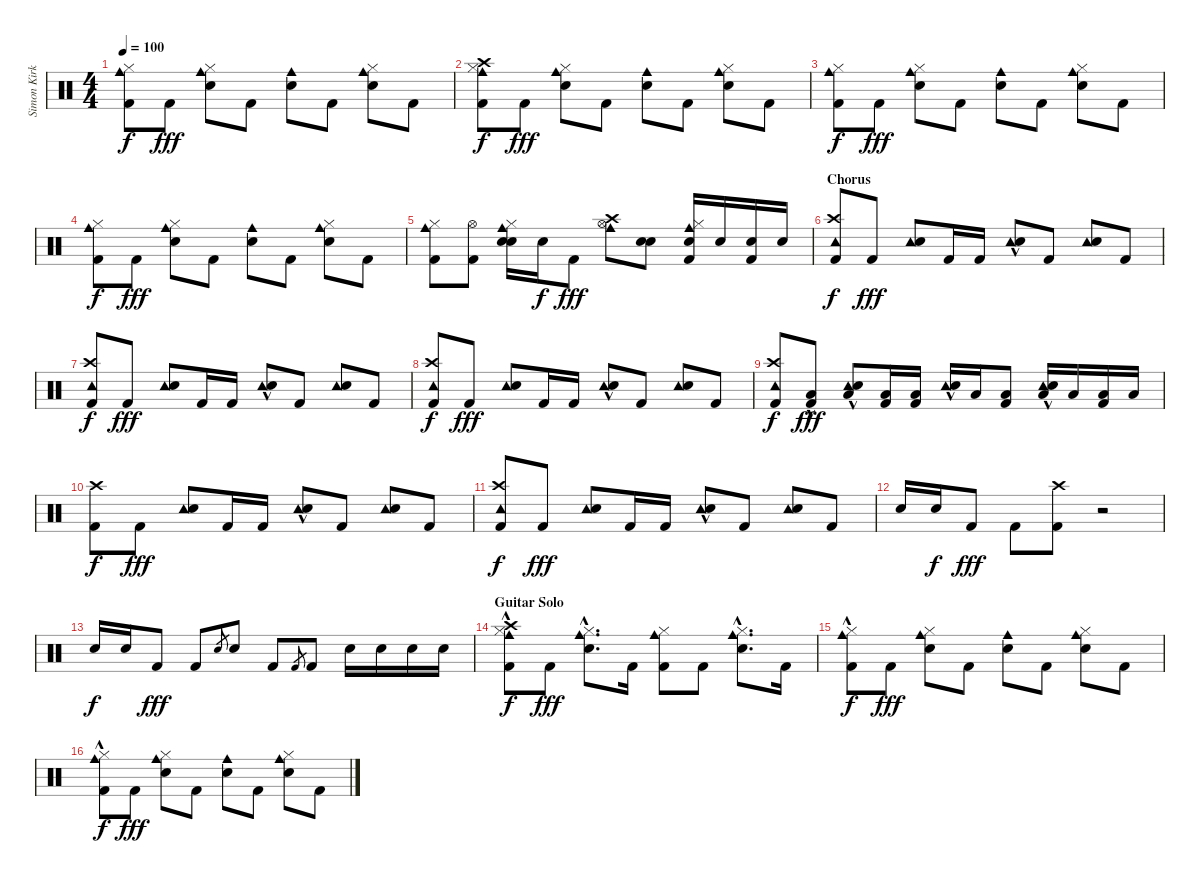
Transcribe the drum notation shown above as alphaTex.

\track ("Simon Kirke" "Simon Kirk") {instrument percussion}
\staff {score}
\articulation defaults
\ts (4 4)
\tempo 100
\clef neutral
\ks c
("Kick (hit) 2" "Cowbell medium (hit)" "Hi-Hat (closed)").8{dy f} "Kick (hit) 2".8{dy fff} ("Cowbell medium (hit)" "Electric Snare (hit)" "Hi-Hat (closed)").8 "Kick (hit) 2".8 ("Cowbell medium (hit)" "Electric Snare (hit)").8 "Kick (hit) 2".8 ("Cowbell medium (hit)" "Electric Snare (hit)" "Hi-Hat (closed)").8 "Kick (hit) 2".8 |
("Kick (hit) 2" "Cowbell medium (hit)" "Hi-Hat (closed)" "Crash high (hit)").8{dy f} "Kick (hit) 2".8{dy fff} ("Cowbell medium (hit)" "Electric Snare (hit)" "Hi-Hat (closed)").8 "Kick (hit) 2".8 ("Cowbell medium (hit)" "Electric Snare (hit)").8 "Kick (hit) 2".8 ("Cowbell medium (hit)" "Electric Snare (hit)" "Hi-Hat (closed)").8 "Kick (hit) 2".8 |
("Kick (hit) 2" "Cowbell medium (hit)" "Hi-Hat (closed)").8{dy f} "Kick (hit) 2".8{dy fff} ("Cowbell medium (hit)" "Electric Snare (hit)" "Hi-Hat (closed)").8 "Kick (hit) 2".8 ("Cowbell medium (hit)" "Electric Snare (hit)").8 "Kick (hit) 2".8 ("Cowbell medium (hit)" "Electric Snare (hit)" "Hi-Hat (closed)").8 "Kick (hit) 2".8 |
("Kick (hit) 2" "Cowbell medium (hit)" "Hi-Hat (closed)").8{dy f} "Kick (hit) 2".8{dy fff} ("Cowbell medium (hit)" "Electric Snare (hit)" "Hi-Hat (closed)").8 "Kick (hit) 2".8 ("Cowbell medium (hit)" "Electric Snare (hit)").8 "Kick (hit) 2".8 ("Cowbell medium (hit)" "Electric Snare (hit)" "Hi-Hat (closed)").8 "Kick (hit) 2".8 |
("Kick (hit) 2" "Cowbell medium (hit)" "Hi-Hat (closed)").8 ("Kick (hit) 2" "Hi-Hat (open)").8 ("Cowbell medium (hit)" "Electric Snare (hit)" "Hi-Hat (closed)" "Electric Snare (hit)").16 "Electric Snare (hit)".16{dy f} "Kick (hit) 2".8{dy fff} ("Cowbell medium (hit)" "Crash high (hit)" "Hi-Hat (open)").8 ("Electric Snare (hit)" "Electric Snare (hit)").8 ("Kick (hit) 2" "Cowbell medium (hit)" "Electric Snare (hit)" "Hi-Hat (closed)").16 "Electric Snare (hit)".16 ("Electric Snare (hit)" "Kick (hit) 2").16 "Electric Snare (hit)".16 |
\section ("" "Chorus")
("Tambourine (hit)" "Crash high (hit)" "Kick (hit) 2").8{dy f} "Kick (hit) 2".8{dy fff} ("Tambourine (hit)" "Electric Snare (hit)").8 "Kick (hit) 2".16 "Kick (hit) 2".16 ("Tambourine (hit)"{hac} "Electric Snare (hit)").8 "Kick (hit) 2".8 ("Tambourine (hit)" "Electric Snare (hit)").8 "Kick (hit) 2".8 |
("Tambourine (hit)" "Crash high (hit)" "Kick (hit) 2").8{dy f} "Kick (hit) 2".8{dy fff} ("Tambourine (hit)" "Electric Snare (hit)").8 "Kick (hit) 2".16 "Kick (hit) 2".16 ("Tambourine (hit)"{hac} "Electric Snare (hit)").8 "Kick (hit) 2".8 ("Tambourine (hit)" "Electric Snare (hit)").8 "Kick (hit) 2".8 |
("Tambourine (hit)" "Crash high (hit)" "Kick (hit) 2").8{dy f} "Kick (hit) 2".8{dy fff} ("Tambourine (hit)" "Electric Snare (hit)").8 "Kick (hit) 2".16 "Kick (hit) 2".16 ("Tambourine (hit)"{hac} "Electric Snare (hit)").8 "Kick (hit) 2".8 ("Tambourine (hit)" "Electric Snare (hit)").8 "Kick (hit) 2".8 |
("Tambourine (hit)" "Crash high (hit)" "Kick (hit) 2").8{dy f} ("Low Tom (hit)" "Kick (hit) 2"{hac}).8{dy fff} ("Tambourine (hit)"{hac} "Low Tom (hit)" "Electric Snare (hit)"{hac}).8 ("Low Tom (hit)" "Kick (hit) 2").16 ("Low Tom (hit)" "Kick (hit) 2").16 ("Tambourine (hit)"{hac} "Electric Snare (hit)"{hac}).16 "Low Tom (hit)".16 ("Low Tom (hit)" "Kick (hit) 2").8 ("Tambourine (hit)"{hac} "Low Tom (hit)" "Electric Snare (hit)"{hac}).16 "Low Tom (hit)".16 ("Low Tom (hit)" "Kick (hit) 2").16 "Low Tom (hit)".16 |
("Crash high (hit)" "Kick (hit) 2").8{dy f} "Kick (hit) 2".8{dy fff} ("Tambourine (hit)" "Electric Snare (hit)").8 "Kick (hit) 2".16 "Kick (hit) 2".16 ("Tambourine (hit)"{hac} "Electric Snare (hit)").8 "Kick (hit) 2".8 ("Tambourine (hit)" "Electric Snare (hit)").8 "Kick (hit) 2".8 |
("Tambourine (hit)" "Crash high (hit)" "Kick (hit) 2").8{dy f} "Kick (hit) 2".8{dy fff} ("Tambourine (hit)" "Electric Snare (hit)").8 "Kick (hit) 2".16 "Kick (hit) 2".16 ("Tambourine (hit)"{hac} "Electric Snare (hit)").8 "Kick (hit) 2".8 ("Tambourine (hit)" "Electric Snare (hit)").8 "Kick (hit) 2".8 |
"Electric Snare (hit)".16 "Electric Snare (hit)".16{dy f} "Kick (hit) 2".8{dy fff} "Kick (hit) 2".8 ("Crash high (hit)" "Kick (hit) 2").8 r.2 |
"Electric Snare (hit)".16{dy f} "Electric Snare (hit)".16 "Kick (hit) 2".8{dy fff} "Kick (hit) 2".8 "Electric Snare (hit)".8{gr} "Electric Snare (hit)".8 "Kick (hit) 2".8 "Kick (hit) 2".8{gr} "Kick (hit) 2".8 "Electric Snare (hit)".16 "Electric Snare (hit)".16 "Electric Snare (hit)".16 "Electric Snare (hit)".16 |
\section ("" "Guitar Solo")
("Kick (hit) 2"{hac} "Cowbell medium (hit)"{hac} "Hi-Hat (closed)"{hac} "Crash high (hit)").8{dy f} "Kick (hit) 2".8{dy fff} ("Cowbell medium (hit)"{hac} "Electric Snare (hit)"{hac} "Hi-Hat (closed)"{hac}).8{d} "Kick (hit) 2".16 ("Kick (hit) 2" "Cowbell medium (hit)" "Hi-Hat (closed)").8 "Kick (hit) 2".8 ("Cowbell medium (hit)"{hac} "Electric Snare (hit)"{hac} "Hi-Hat (closed)"{hac}).8{d} "Kick (hit) 2".16 |
("Kick (hit) 2"{hac} "Cowbell medium (hit)"{hac} "Hi-Hat (closed)"{hac}).8{dy f} "Kick (hit) 2".8{dy fff} ("Cowbell medium (hit)" "Electric Snare (hit)" "Hi-Hat (closed)").8 "Kick (hit) 2".8 ("Cowbell medium (hit)" "Electric Snare (hit)").8 "Kick (hit) 2".8 ("Cowbell medium (hit)" "Electric Snare (hit)" "Hi-Hat (closed)").8 "Kick (hit) 2".8 |
("Kick (hit) 2"{hac} "Cowbell medium (hit)"{hac} "Hi-Hat (closed)"{hac}).8{dy f} "Kick (hit) 2".8{dy fff} ("Cowbell medium (hit)" "Electric Snare (hit)" "Hi-Hat (closed)").8 "Kick (hit) 2".8 ("Cowbell medium (hit)" "Electric Snare (hit)").8 "Kick (hit) 2".8 ("Cowbell medium (hit)" "Electric Snare (hit)" "Hi-Hat (closed)").8 "Kick (hit) 2".8
